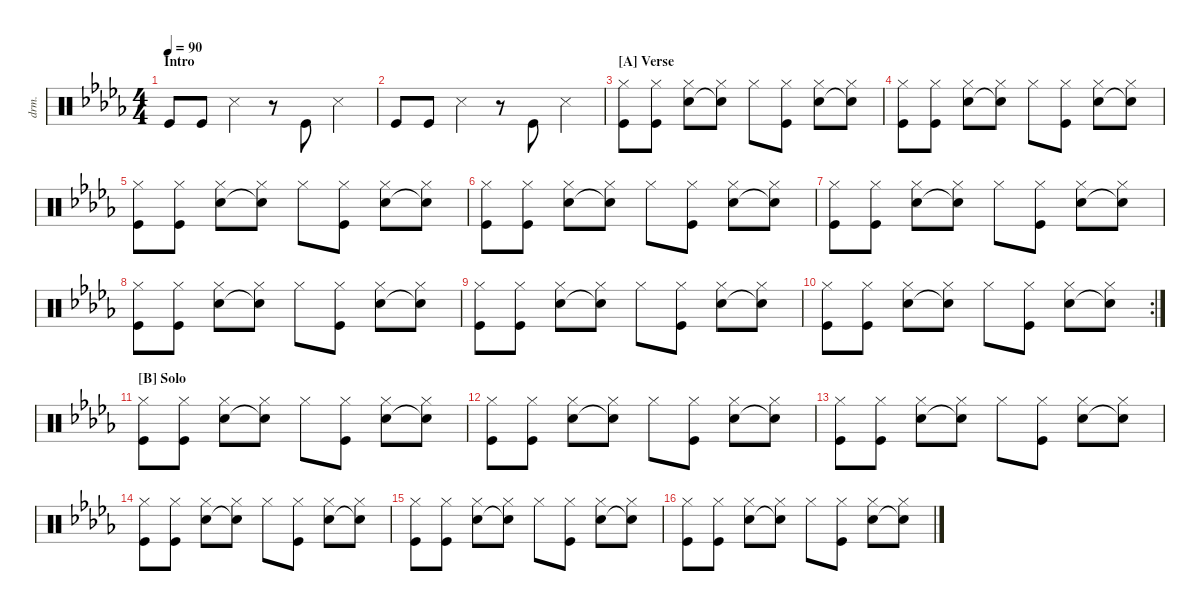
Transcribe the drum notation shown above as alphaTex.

\defaultSystemsLayout 4
\hideDynamics
\bracketExtendMode nobrackets
\otherSystemsTrackNameOrientation horizontal
\track ("Drumkit" "drm.") {instrument percussion}
\staff {score}
\articulation defaults
\ts (4 4)
\section ("" "Intro")
\tempo 90
\clef neutral
\ks db "Kick (hit)"{acc forcenatural}.8{dy ppp beam Up} "Kick (hit)"{acc forcenatural}.8{beam Up} "Snare (side stick) 3"{acc forcenatural}.4{beam Down}
r.8{beam Down} "Kick (hit)"{acc forcenatural}.8{beam Up} "Snare (side stick) 3"{acc forcenatural}.4{beam Down} |
"Kick (hit)"{acc forcenatural}.8{beam Up} "Kick (hit)"{acc forcenatural}.8{beam Up} "Snare (side stick) 3"{acc forcenatural}.4{beam Down} r.8{beam Down} "Kick (hit)"{acc forcenatural}.8{beam Up} "Snare (side stick) 3"{acc forcenatural}.4{beam Down} |
\section ("A" "Verse")
("Kick (hit)"{acc forcenatural} "Hi-Hat (closed)"{acc forcenatural}).8{dy pp beam Down} ("Kick (hit)"{acc forcenatural} "Hi-Hat (closed)"{acc forcenatural}).8{beam Down} ("Snare (hit) 2"{acc forcenatural} "Hi-Hat (closed)"{acc forcenatural}).8{beam Down} ("Snare (hit) 2"{t acc forcenatural} "Hi-Hat (closed)"{acc forcenatural}).8{beam Down} "Hi-Hat (closed)"{acc forcenatural}.8{beam Down} ("Kick (hit)"{acc forcenatural} "Hi-Hat (closed)"{acc forcenatural}).8{beam Down} ("Snare (hit) 2"{acc forcenatural} "Hi-Hat (closed)"{acc forcenatural}).8{beam Down} ("Snare (hit) 2"{t acc forcenatural} "Hi-Hat (closed)"{acc forcenatural}).8{beam Down} |
("Kick (hit)"{acc forcenatural} "Hi-Hat (closed)"{acc forcenatural}).8{beam Down} ("Kick (hit)"{acc forcenatural} "Hi-Hat (closed)"{acc forcenatural}).8{beam Down} ("Snare (hit) 2"{acc forcenatural} "Hi-Hat (closed)"{acc forcenatural}).8{beam Down} ("Snare (hit) 2"{t acc forcenatural} "Hi-Hat (closed)"{acc forcenatural}).8{beam Down} "Hi-Hat (closed)"{acc forcenatural}.8{beam Down} ("Kick (hit)"{acc forcenatural} "Hi-Hat (closed)"{acc forcenatural}).8{beam Down} ("Snare (hit) 2"{acc forcenatural} "Hi-Hat (closed)"{acc forcenatural}).8{beam Down} ("Snare (hit) 2"{t acc forcenatural} "Hi-Hat (closed)"{acc forcenatural}).8{beam Down} |
("Kick (hit)"{acc forcenatural} "Hi-Hat (closed)"{acc forcenatural}).8{beam Down} ("Kick (hit)"{acc forcenatural} "Hi-Hat (closed)"{acc forcenatural}).8{beam Down} ("Snare (hit) 2"{acc forcenatural} "Hi-Hat (closed)"{acc forcenatural}).8{beam Down} ("Snare (hit) 2"{t acc forcenatural} "Hi-Hat (closed)"{acc forcenatural}).8{beam Down} "Hi-Hat (closed)"{acc forcenatural}.8{beam Down} ("Kick (hit)"{acc forcenatural} "Hi-Hat (closed)"{acc forcenatural}).8{beam Down} ("Snare (hit) 2"{acc forcenatural} "Hi-Hat (closed)"{acc forcenatural}).8{beam Down} ("Snare (hit) 2"{t acc forcenatural} "Hi-Hat (closed)"{acc forcenatural}).8{beam Down} |
("Kick (hit)"{acc forcenatural} "Hi-Hat (closed)"{acc forcenatural}).8{beam Down} ("Kick (hit)"{acc forcenatural} "Hi-Hat (closed)"{acc forcenatural}).8{beam Down} ("Snare (hit) 2"{acc forcenatural} "Hi-Hat (closed)"{acc forcenatural}).8{beam Down} ("Snare (hit) 2"{t acc forcenatural} "Hi-Hat (closed)"{acc forcenatural}).8{beam Down} "Hi-Hat (closed)"{acc forcenatural}.8{beam Down} ("Kick (hit)"{acc forcenatural} "Hi-Hat (closed)"{acc forcenatural}).8{beam Down} ("Snare (hit) 2"{acc forcenatural} "Hi-Hat (closed)"{acc forcenatural}).8{beam Down} ("Snare (hit) 2"{t acc forcenatural} "Hi-Hat (closed)"{acc forcenatural}).8{beam Down} |
("Kick (hit)"{acc forcenatural} "Hi-Hat (closed)"{acc forcenatural}).8{beam Down} ("Kick (hit)"{acc forcenatural} "Hi-Hat (closed)"{acc forcenatural}).8{beam Down} ("Snare (hit) 2"{acc forcenatural} "Hi-Hat (closed)"{acc forcenatural}).8{beam Down} ("Snare (hit) 2"{t acc forcenatural} "Hi-Hat (closed)"{acc forcenatural}).8{beam Down} "Hi-Hat (closed)"{acc forcenatural}.8{beam Down} ("Kick (hit)"{acc forcenatural} "Hi-Hat (closed)"{acc forcenatural}).8{beam Down} ("Snare (hit) 2"{acc forcenatural} "Hi-Hat (closed)"{acc forcenatural}).8{beam Down} ("Snare (hit) 2"{t acc forcenatural} "Hi-Hat (closed)"{acc forcenatural}).8{beam Down} |
("Kick (hit)"{acc forcenatural} "Hi-Hat (closed)"{acc forcenatural}).8{beam Down} ("Kick (hit)"{acc forcenatural} "Hi-Hat (closed)"{acc forcenatural}).8{beam Down} ("Snare (hit) 2"{acc forcenatural} "Hi-Hat (closed)"{acc forcenatural}).8{beam Down} ("Snare (hit) 2"{t acc forcenatural} "Hi-Hat (closed)"{acc forcenatural}).8{beam Down} "Hi-Hat (closed)"{acc forcenatural}.8{beam Down} ("Kick (hit)"{acc forcenatural} "Hi-Hat (closed)"{acc forcenatural}).8{beam Down} ("Snare (hit) 2"{acc forcenatural} "Hi-Hat (closed)"{acc forcenatural}).8{beam Down} ("Snare (hit) 2"{t acc forcenatural} "Hi-Hat (closed)"{acc forcenatural}).8{beam Down} |
("Kick (hit)"{acc forcenatural} "Hi-Hat (closed)"{acc forcenatural}).8{beam Down} ("Kick (hit)"{acc forcenatural} "Hi-Hat (closed)"{acc forcenatural}).8{beam Down} ("Snare (hit) 2"{acc forcenatural} "Hi-Hat (closed)"{acc forcenatural}).8{beam Down} ("Snare (hit) 2"{t acc forcenatural} "Hi-Hat (closed)"{acc forcenatural}).8{beam Down} "Hi-Hat (closed)"{acc forcenatural}.8{beam Down} ("Kick (hit)"{acc forcenatural} "Hi-Hat (closed)"{acc forcenatural}).8{beam Down} ("Snare (hit) 2"{acc forcenatural} "Hi-Hat (closed)"{acc forcenatural}).8{beam Down} ("Snare (hit) 2"{t acc forcenatural} "Hi-Hat (closed)"{acc forcenatural}).8{beam Down} |
\rc 2
("Kick (hit)"{acc forcenatural} "Hi-Hat (closed)"{acc forcenatural}).8{beam Down} ("Kick (hit)"{acc forcenatural} "Hi-Hat (closed)"{acc forcenatural}).8{beam Down} ("Snare (hit) 2"{acc forcenatural} "Hi-Hat (closed)"{acc forcenatural}).8{beam Down} ("Snare (hit) 2"{t acc forcenatural} "Hi-Hat (closed)"{acc forcenatural}).8{beam Down} "Hi-Hat (closed)"{acc forcenatural}.8{beam Down} ("Kick (hit)"{acc forcenatural} "Hi-Hat (closed)"{acc forcenatural}).8{beam Down} ("Snare (hit) 2"{acc forcenatural} "Hi-Hat (closed)"{acc forcenatural}).8{beam Down} ("Snare (hit) 2"{t acc forcenatural} "Hi-Hat (closed)"{acc forcenatural}).8{beam Down} |
\section ("B" "Solo")
("Kick (hit)"{acc forcenatural} "Hi-Hat (closed)"{acc forcenatural}).8{beam Down} ("Kick (hit)"{acc forcenatural} "Hi-Hat (closed)"{acc forcenatural}).8{beam Down} ("Snare (hit) 2"{acc forcenatural} "Hi-Hat (closed)"{acc forcenatural}).8{beam Down} ("Snare (hit) 2"{t acc forcenatural} "Hi-Hat (closed)"{acc forcenatural}).8{beam Down} "Hi-Hat (closed)"{acc forcenatural}.8{beam Down} ("Kick (hit)"{acc forcenatural} "Hi-Hat (closed)"{acc forcenatural}).8{beam Down} ("Snare (hit) 2"{acc forcenatural} "Hi-Hat (closed)"{acc forcenatural}).8{beam Down} ("Snare (hit) 2"{t acc forcenatural} "Hi-Hat (closed)"{acc forcenatural}).8{beam Down} |
("Kick (hit)"{acc forcenatural} "Hi-Hat (closed)"{acc forcenatural}).8{beam Down} ("Kick (hit)"{acc forcenatural} "Hi-Hat (closed)"{acc forcenatural}).8{beam Down} ("Snare (hit) 2"{acc forcenatural} "Hi-Hat (closed)"{acc forcenatural}).8{beam Down} ("Snare (hit) 2"{t acc forcenatural} "Hi-Hat (closed)"{acc forcenatural}).8{beam Down} "Hi-Hat (closed)"{acc forcenatural}.8{beam Down} ("Kick (hit)"{acc forcenatural} "Hi-Hat (closed)"{acc forcenatural}).8{beam Down} ("Snare (hit) 2"{acc forcenatural} "Hi-Hat (closed)"{acc forcenatural}).8{beam Down} ("Snare (hit) 2"{t acc forcenatural} "Hi-Hat (closed)"{acc forcenatural}).8{beam Down} |
("Kick (hit)"{acc forcenatural} "Hi-Hat (closed)"{acc forcenatural}).8{beam Down} ("Kick (hit)"{acc forcenatural} "Hi-Hat (closed)"{acc forcenatural}).8{beam Down} ("Snare (hit) 2"{acc forcenatural} "Hi-Hat (closed)"{acc forcenatural}).8{beam Down} ("Snare (hit) 2"{t acc forcenatural} "Hi-Hat (closed)"{acc forcenatural}).8{beam Down} "Hi-Hat (closed)"{acc forcenatural}.8{beam Down} ("Kick (hit)"{acc forcenatural} "Hi-Hat (closed)"{acc forcenatural}).8{beam Down} ("Snare (hit) 2"{acc forcenatural} "Hi-Hat (closed)"{acc forcenatural}).8{beam Down} ("Snare (hit) 2"{t acc forcenatural} "Hi-Hat (closed)"{acc forcenatural}).8{beam Down} |
("Kick (hit)"{acc forcenatural} "Hi-Hat (closed)"{acc forcenatural}).8{beam Down} ("Kick (hit)"{acc forcenatural} "Hi-Hat (closed)"{acc forcenatural}).8{beam Down} ("Snare (hit) 2"{acc forcenatural} "Hi-Hat (closed)"{acc forcenatural}).8{beam Down} ("Snare (hit) 2"{t acc forcenatural} "Hi-Hat (closed)"{acc forcenatural}).8{beam Down} "Hi-Hat (closed)"{acc forcenatural}.8{beam Down} ("Kick (hit)"{acc forcenatural} "Hi-Hat (closed)"{acc forcenatural}).8{beam Down} ("Snare (hit) 2"{acc forcenatural} "Hi-Hat (closed)"{acc forcenatural}).8{beam Down} ("Snare (hit) 2"{t acc forcenatural} "Hi-Hat (closed)"{acc forcenatural}).8{beam Down} |
("Kick (hit)"{acc forcenatural} "Hi-Hat (closed)"{acc forcenatural}).8{beam Down} ("Kick (hit)"{acc forcenatural} "Hi-Hat (closed)"{acc forcenatural}).8{beam Down} ("Snare (hit) 2"{acc forcenatural} "Hi-Hat (closed)"{acc forcenatural}).8{beam Down} ("Snare (hit) 2"{t acc forcenatural} "Hi-Hat (closed)"{acc forcenatural}).8{beam Down} "Hi-Hat (closed)"{acc forcenatural}.8{beam Down} ("Kick (hit)"{acc forcenatural} "Hi-Hat (closed)"{acc forcenatural}).8{beam Down} ("Snare (hit) 2"{acc forcenatural} "Hi-Hat (closed)"{acc forcenatural}).8{beam Down} ("Snare (hit) 2"{t acc forcenatural} "Hi-Hat (closed)"{acc forcenatural}).8{beam Down} |
("Kick (hit)"{acc forcenatural} "Hi-Hat (closed)"{acc forcenatural}).8{beam Down} ("Kick (hit)"{acc forcenatural} "Hi-Hat (closed)"{acc forcenatural}).8{beam Down} ("Snare (hit) 2"{acc forcenatural} "Hi-Hat (closed)"{acc forcenatural}).8{beam Down} ("Snare (hit) 2"{t acc forcenatural} "Hi-Hat (closed)"{acc forcenatural}).8{beam Down} "Hi-Hat (closed)"{acc forcenatural}.8{beam Down} ("Kick (hit)"{acc forcenatural} "Hi-Hat (closed)"{acc forcenatural}).8{beam Down} ("Snare (hit) 2"{acc forcenatural} "Hi-Hat (closed)"{acc forcenatural}).8{beam Down} ("Snare (hit) 2"{t acc forcenatural} "Hi-Hat (closed)"{acc forcenatural}).8{beam Down}
